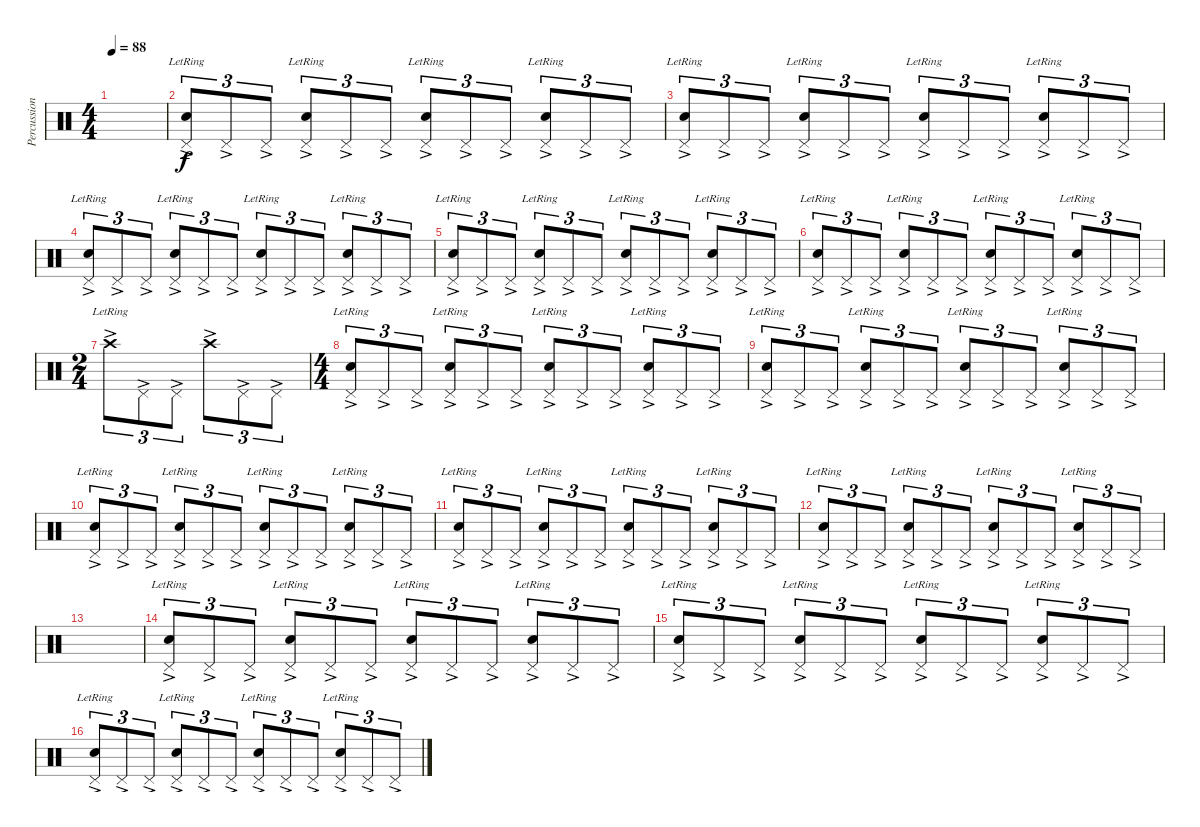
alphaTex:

\track ("Percussions" "Percussion") {instrument percussion}
\staff {score}
\articulation defaults
\ts (4 4)
\tempo 88
\clef neutral
\ks c
|
("Pedal Hi-Hat (hit)"{ac} "Snare (hit) 2"{ac lr}).8{tu (3 2)} "Pedal Hi-Hat (hit)"{ac}.8{tu (3 2)} "Pedal Hi-Hat (hit)"{ac}.8{tu (3 2)} ("Pedal Hi-Hat (hit)" "Snare (hit) 2"{ac lr}).8{tu (3 2)} "Pedal Hi-Hat (hit)"{ac}.8{tu (3 2)} "Pedal Hi-Hat (hit)"{ac}.8{tu (3 2)} ("Pedal Hi-Hat (hit)" "Snare (hit) 2"{ac lr}).8{tu (3 2)} "Pedal Hi-Hat (hit)"{ac}.8{tu (3 2)} "Pedal Hi-Hat (hit)"{ac}.8{tu (3 2)} ("Pedal Hi-Hat (hit)" "Snare (hit) 2"{ac lr}).8{tu (3 2)} "Pedal Hi-Hat (hit)"{ac}.8{tu (3 2)} "Pedal Hi-Hat (hit)"{ac}.8{tu (3 2)} |
("Pedal Hi-Hat (hit)"{ac} "Snare (hit) 2"{ac lr}).8{tu (3 2)} "Pedal Hi-Hat (hit)"{ac}.8{tu (3 2)} "Pedal Hi-Hat (hit)"{ac}.8{tu (3 2)} ("Pedal Hi-Hat (hit)" "Snare (hit) 2"{ac lr}).8{tu (3 2)} "Pedal Hi-Hat (hit)"{ac}.8{tu (3 2)} "Pedal Hi-Hat (hit)"{ac}.8{tu (3 2)} ("Pedal Hi-Hat (hit)" "Snare (hit) 2"{ac lr}).8{tu (3 2)} "Pedal Hi-Hat (hit)"{ac}.8{tu (3 2)} "Pedal Hi-Hat (hit)"{ac}.8{tu (3 2)} ("Pedal Hi-Hat (hit)" "Snare (hit) 2"{ac lr}).8{tu (3 2)} "Pedal Hi-Hat (hit)"{ac}.8{tu (3 2)} "Pedal Hi-Hat (hit)"{ac}.8{tu (3 2)} |
("Pedal Hi-Hat (hit)"{ac} "Snare (hit) 2"{ac lr}).8{tu (3 2)} "Pedal Hi-Hat (hit)"{ac}.8{tu (3 2)} "Pedal Hi-Hat (hit)"{ac}.8{tu (3 2)} ("Pedal Hi-Hat (hit)" "Snare (hit) 2"{ac lr}).8{tu (3 2)} "Pedal Hi-Hat (hit)"{ac}.8{tu (3 2)} "Pedal Hi-Hat (hit)"{ac}.8{tu (3 2)} ("Pedal Hi-Hat (hit)" "Snare (hit) 2"{ac lr}).8{tu (3 2)} "Pedal Hi-Hat (hit)"{ac}.8{tu (3 2)} "Pedal Hi-Hat (hit)"{ac}.8{tu (3 2)} ("Pedal Hi-Hat (hit)" "Snare (hit) 2"{ac lr}).8{tu (3 2)} "Pedal Hi-Hat (hit)"{ac}.8{tu (3 2)} "Pedal Hi-Hat (hit)"{ac}.8{tu (3 2)} |
("Pedal Hi-Hat (hit)"{ac} "Snare (hit) 2"{ac lr}).8{tu (3 2)} "Pedal Hi-Hat (hit)"{ac}.8{tu (3 2)} "Pedal Hi-Hat (hit)"{ac}.8{tu (3 2)} ("Pedal Hi-Hat (hit)" "Snare (hit) 2"{ac lr}).8{tu (3 2)} "Pedal Hi-Hat (hit)"{ac}.8{tu (3 2)} "Pedal Hi-Hat (hit)"{ac}.8{tu (3 2)} ("Pedal Hi-Hat (hit)" "Snare (hit) 2"{ac lr}).8{tu (3 2)} "Pedal Hi-Hat (hit)"{ac}.8{tu (3 2)} "Pedal Hi-Hat (hit)"{ac}.8{tu (3 2)} ("Pedal Hi-Hat (hit)" "Snare (hit) 2"{ac lr}).8{tu (3 2)} "Pedal Hi-Hat (hit)"{ac}.8{tu (3 2)} "Pedal Hi-Hat (hit)"{ac}.8{tu (3 2)} |
("Pedal Hi-Hat (hit)"{ac} "Snare (hit) 2"{ac lr}).8{tu (3 2)} "Pedal Hi-Hat (hit)"{ac}.8{tu (3 2)} "Pedal Hi-Hat (hit)"{ac}.8{tu (3 2)} ("Pedal Hi-Hat (hit)" "Snare (hit) 2"{ac lr}).8{tu (3 2)} "Pedal Hi-Hat (hit)"{ac}.8{tu (3 2)} "Pedal Hi-Hat (hit)"{ac}.8{tu (3 2)} ("Pedal Hi-Hat (hit)" "Snare (hit) 2"{ac lr}).8{tu (3 2)} "Pedal Hi-Hat (hit)"{ac}.8{tu (3 2)} "Pedal Hi-Hat (hit)"{ac}.8{tu (3 2)} ("Pedal Hi-Hat (hit)" "Snare (hit) 2"{ac lr}).8{tu (3 2)} "Pedal Hi-Hat (hit)"{ac}.8{tu (3 2)} "Pedal Hi-Hat (hit)"{ac}.8{tu (3 2)} |
\ts (2 4)
"Crash high (hit)"{ac lr}.8{tu (3 2)} "Pedal Hi-Hat (hit)"{ac}.8{tu (3 2)} "Pedal Hi-Hat (hit)"{ac}.8{tu (3 2)} "Crash high (hit)"{ac}.8{tu (3 2)} "Pedal Hi-Hat (hit)"{ac}.8{tu (3 2)} "Pedal Hi-Hat (hit)"{ac}.8{tu (3 2)} |
\ts (4 4)
("Pedal Hi-Hat (hit)"{ac} "Snare (hit) 2"{ac lr}).8{tu (3 2)} "Pedal Hi-Hat (hit)"{ac}.8{tu (3 2)} "Pedal Hi-Hat (hit)"{ac}.8{tu (3 2)} ("Pedal Hi-Hat (hit)" "Snare (hit) 2"{ac lr}).8{tu (3 2)} "Pedal Hi-Hat (hit)"{ac}.8{tu (3 2)} "Pedal Hi-Hat (hit)"{ac}.8{tu (3 2)} ("Pedal Hi-Hat (hit)" "Snare (hit) 2"{ac lr}).8{tu (3 2)} "Pedal Hi-Hat (hit)"{ac}.8{tu (3 2)} "Pedal Hi-Hat (hit)"{ac}.8{tu (3 2)} ("Pedal Hi-Hat (hit)" "Snare (hit) 2"{ac lr}).8{tu (3 2)} "Pedal Hi-Hat (hit)"{ac}.8{tu (3 2)} "Pedal Hi-Hat (hit)"{ac}.8{tu (3 2)} |
("Pedal Hi-Hat (hit)"{ac} "Snare (hit) 2"{ac lr}).8{tu (3 2)} "Pedal Hi-Hat (hit)"{ac}.8{tu (3 2)} "Pedal Hi-Hat (hit)"{ac}.8{tu (3 2)} ("Pedal Hi-Hat (hit)" "Snare (hit) 2"{ac lr}).8{tu (3 2)} "Pedal Hi-Hat (hit)"{ac}.8{tu (3 2)} "Pedal Hi-Hat (hit)"{ac}.8{tu (3 2)} ("Pedal Hi-Hat (hit)" "Snare (hit) 2"{ac lr}).8{tu (3 2)} "Pedal Hi-Hat (hit)"{ac}.8{tu (3 2)} "Pedal Hi-Hat (hit)"{ac}.8{tu (3 2)} ("Pedal Hi-Hat (hit)" "Snare (hit) 2"{ac lr}).8{tu (3 2)} "Pedal Hi-Hat (hit)"{ac}.8{tu (3 2)} "Pedal Hi-Hat (hit)"{ac}.8{tu (3 2)} |
("Pedal Hi-Hat (hit)"{ac} "Snare (hit) 2"{ac lr}).8{tu (3 2)} "Pedal Hi-Hat (hit)"{ac}.8{tu (3 2)} "Pedal Hi-Hat (hit)"{ac}.8{tu (3 2)} ("Pedal Hi-Hat (hit)" "Snare (hit) 2"{ac lr}).8{tu (3 2)} "Pedal Hi-Hat (hit)"{ac}.8{tu (3 2)} "Pedal Hi-Hat (hit)"{ac}.8{tu (3 2)} ("Pedal Hi-Hat (hit)" "Snare (hit) 2"{ac lr}).8{tu (3 2)} "Pedal Hi-Hat (hit)"{ac}.8{tu (3 2)} "Pedal Hi-Hat (hit)"{ac}.8{tu (3 2)} ("Pedal Hi-Hat (hit)" "Snare (hit) 2"{ac lr}).8{tu (3 2)} "Pedal Hi-Hat (hit)"{ac}.8{tu (3 2)} "Pedal Hi-Hat (hit)"{ac}.8{tu (3 2)} |
("Pedal Hi-Hat (hit)"{ac} "Snare (hit) 2"{ac lr}).8{tu (3 2)} "Pedal Hi-Hat (hit)"{ac}.8{tu (3 2)} "Pedal Hi-Hat (hit)"{ac}.8{tu (3 2)} ("Pedal Hi-Hat (hit)" "Snare (hit) 2"{ac lr}).8{tu (3 2)} "Pedal Hi-Hat (hit)"{ac}.8{tu (3 2)} "Pedal Hi-Hat (hit)"{ac}.8{tu (3 2)} ("Pedal Hi-Hat (hit)" "Snare (hit) 2"{ac lr}).8{tu (3 2)} "Pedal Hi-Hat (hit)"{ac}.8{tu (3 2)} "Pedal Hi-Hat (hit)"{ac}.8{tu (3 2)} ("Pedal Hi-Hat (hit)" "Snare (hit) 2"{ac lr}).8{tu (3 2)} "Pedal Hi-Hat (hit)"{ac}.8{tu (3 2)} "Pedal Hi-Hat (hit)"{ac}.8{tu (3 2)} |
("Pedal Hi-Hat (hit)"{ac} "Snare (hit) 2"{ac lr}).8{tu (3 2)} "Pedal Hi-Hat (hit)"{ac}.8{tu (3 2)} "Pedal Hi-Hat (hit)"{ac}.8{tu (3 2)} ("Pedal Hi-Hat (hit)" "Snare (hit) 2"{ac lr}).8{tu (3 2)} "Pedal Hi-Hat (hit)"{ac}.8{tu (3 2)} "Pedal Hi-Hat (hit)"{ac}.8{tu (3 2)} ("Pedal Hi-Hat (hit)" "Snare (hit) 2"{ac lr}).8{tu (3 2)} "Pedal Hi-Hat (hit)"{ac}.8{tu (3 2)} "Pedal Hi-Hat (hit)"{ac}.8{tu (3 2)} ("Pedal Hi-Hat (hit)" "Snare (hit) 2"{ac lr}).8{tu (3 2)} "Pedal Hi-Hat (hit)"{ac}.8{tu (3 2)} "Pedal Hi-Hat (hit)"{ac}.8{tu (3 2)} |
|
("Pedal Hi-Hat (hit)"{ac} "Snare (hit) 2"{ac lr}).8{tu (3 2)} "Pedal Hi-Hat (hit)"{ac}.8{tu (3 2)} "Pedal Hi-Hat (hit)"{ac}.8{tu (3 2)} ("Pedal Hi-Hat (hit)" "Snare (hit) 2"{ac lr}).8{tu (3 2)} "Pedal Hi-Hat (hit)"{ac}.8{tu (3 2)} "Pedal Hi-Hat (hit)"{ac}.8{tu (3 2)} ("Pedal Hi-Hat (hit)" "Snare (hit) 2"{ac lr}).8{tu (3 2)} "Pedal Hi-Hat (hit)"{ac}.8{tu (3 2)} "Pedal Hi-Hat (hit)"{ac}.8{tu (3 2)} ("Pedal Hi-Hat (hit)" "Snare (hit) 2"{ac lr}).8{tu (3 2)} "Pedal Hi-Hat (hit)"{ac}.8{tu (3 2)} "Pedal Hi-Hat (hit)"{ac}.8{tu (3 2)} |
("Pedal Hi-Hat (hit)"{ac} "Snare (hit) 2"{ac lr}).8{tu (3 2)} "Pedal Hi-Hat (hit)"{ac}.8{tu (3 2)} "Pedal Hi-Hat (hit)"{ac}.8{tu (3 2)} ("Pedal Hi-Hat (hit)" "Snare (hit) 2"{ac lr}).8{tu (3 2)} "Pedal Hi-Hat (hit)"{ac}.8{tu (3 2)} "Pedal Hi-Hat (hit)"{ac}.8{tu (3 2)} ("Pedal Hi-Hat (hit)" "Snare (hit) 2"{ac lr}).8{tu (3 2)} "Pedal Hi-Hat (hit)"{ac}.8{tu (3 2)} "Pedal Hi-Hat (hit)"{ac}.8{tu (3 2)} ("Pedal Hi-Hat (hit)" "Snare (hit) 2"{ac lr}).8{tu (3 2)} "Pedal Hi-Hat (hit)"{ac}.8{tu (3 2)} "Pedal Hi-Hat (hit)"{ac}.8{tu (3 2)} |
("Pedal Hi-Hat (hit)"{ac} "Snare (hit) 2"{ac lr}).8{tu (3 2)} "Pedal Hi-Hat (hit)"{ac}.8{tu (3 2)} "Pedal Hi-Hat (hit)"{ac}.8{tu (3 2)} ("Pedal Hi-Hat (hit)" "Snare (hit) 2"{ac lr}).8{tu (3 2)} "Pedal Hi-Hat (hit)"{ac}.8{tu (3 2)} "Pedal Hi-Hat (hit)"{ac}.8{tu (3 2)} ("Pedal Hi-Hat (hit)" "Snare (hit) 2"{ac lr}).8{tu (3 2)} "Pedal Hi-Hat (hit)"{ac}.8{tu (3 2)} "Pedal Hi-Hat (hit)"{ac}.8{tu (3 2)} ("Pedal Hi-Hat (hit)" "Snare (hit) 2"{ac lr}).8{tu (3 2)} "Pedal Hi-Hat (hit)"{ac}.8{tu (3 2)} "Pedal Hi-Hat (hit)"{ac}.8{tu (3 2)}
